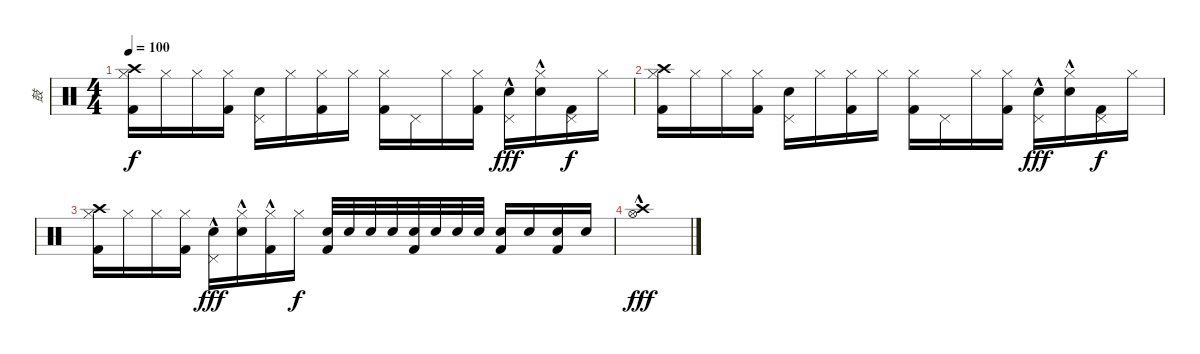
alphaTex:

\track ("鼓" "鼓") {instrument percussion}
\staff {score}
\articulation defaults
\ts (4 4)
\tempo 100
\clef neutral
\ks c
("Crash high (hit)" "Hi-Hat (closed)" "Kick (hit) 2").16{dy f} "Hi-Hat (closed)".16 "Hi-Hat (closed)".16 ("Hi-Hat (closed)" "Kick (hit) 2").16 ("Pedal Hi-Hat (hit)" "Electric Snare (hit)").16 "Hi-Hat (closed)".16 ("Hi-Hat (closed)" "Kick (hit) 2").16 "Hi-Hat (closed)".16 ("Hi-Hat (closed)" "Kick (hit) 2").16 "Pedal Hi-Hat (hit)".16 "Hi-Hat (closed)".16 ("Hi-Hat (closed)" "Kick (hit) 2").16 ("Pedal Hi-Hat (hit)" "Electric Snare (hit)"{hac}).16{dy fff} ("Hi-Hat (closed)" "Electric Snare (hit)"{hac}).16 ("Pedal Hi-Hat (hit)" "Kick (hit) 2").16{dy f} "Hi-Hat (closed)".16 |
("Crash high (hit)" "Hi-Hat (closed)" "Kick (hit) 2").16 "Hi-Hat (closed)".16 "Hi-Hat (closed)".16 ("Hi-Hat (closed)" "Kick (hit) 2").16 ("Pedal Hi-Hat (hit)" "Electric Snare (hit)").16 "Hi-Hat (closed)".16 ("Hi-Hat (closed)" "Kick (hit) 2").16 "Hi-Hat (closed)".16 ("Hi-Hat (closed)" "Kick (hit) 2").16 "Pedal Hi-Hat (hit)".16 "Hi-Hat (closed)".16 ("Hi-Hat (closed)" "Kick (hit) 2").16 ("Pedal Hi-Hat (hit)" "Electric Snare (hit)"{hac}).16{dy fff} ("Hi-Hat (closed)" "Electric Snare (hit)"{hac}).16 ("Pedal Hi-Hat (hit)" "Kick (hit) 2").16{dy f} "Hi-Hat (closed)".16 |
("Crash high (hit)" "Hi-Hat (closed)" "Kick (hit) 2").16 "Hi-Hat (closed)".16 "Hi-Hat (closed)".16 ("Hi-Hat (closed)" "Kick (hit) 2").16 ("Pedal Hi-Hat (hit)" "Electric Snare (hit)"{hac}).16{dy fff} ("Hi-Hat (closed)" "Electric Snare (hit)"{hac}).16 ("Hi-Hat (closed)" "Kick (hit) 2"{hac}).16 "Hi-Hat (closed)".16{dy f} ("Electric Snare (hit)" "Kick (hit) 2").32 "Electric Snare (hit)".32 "Electric Snare (hit)".32 "Electric Snare (hit)".32 ("Electric Snare (hit)" "Kick (hit) 2").32 "Electric Snare (hit)".32 "Snare (hit) 2".32 "Snare (hit) 2".32 ("Snare (hit) 2" "Kick (hit) 2").16 "Snare (hit) 2".16 ("Snare (hit) 2" "Kick (hit) 2").16 "Snare (hit) 2".16 |
("Crash high (hit)"{hac} "Hi-Hat (open)"{hac}).1{dy fff}
